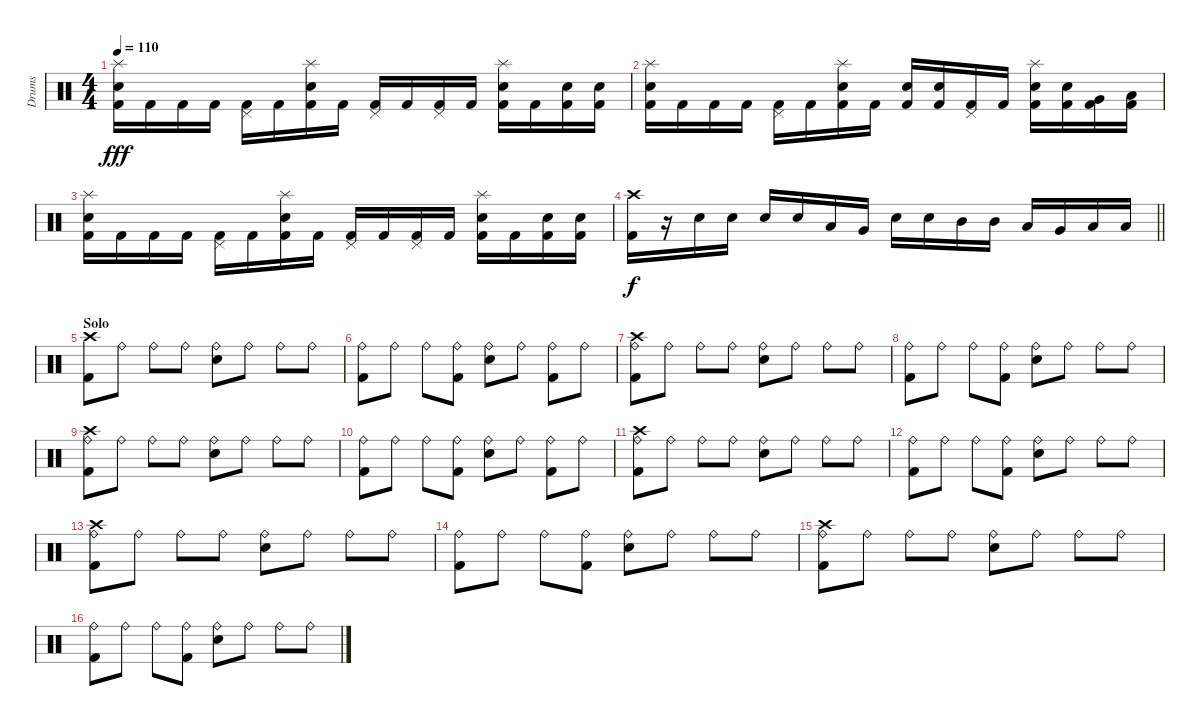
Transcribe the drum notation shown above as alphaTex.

\track ("Drums" "Drums") {instrument percussion}
\staff {score}
\articulation defaults
\ts (4 4)
\tempo 110
\clef neutral
\ks c
("Splash (hit)" "Electric Snare (hit)" "Kick (hit) 2").16{dy fff} "Kick (hit) 2".16 "Kick (hit) 2".16 "Kick (hit) 2".16 ("Pedal Hi-Hat (hit)" "Kick (hit) 2").16 "Kick (hit) 2".16 ("Splash (hit)" "Electric Snare (hit)" "Kick (hit) 2").16 "Kick (hit) 2".16 ("Pedal Hi-Hat (hit)" "Kick (hit) 2").16 "Kick (hit) 2".16 ("Pedal Hi-Hat (hit)" "Kick (hit) 2").16 "Kick (hit) 2".16 ("Splash (hit)" "Electric Snare (hit)" "Kick (hit) 2").16 "Kick (hit) 2".16 ("Electric Snare (hit)" "Kick (hit) 2").16 ("Electric Snare (hit)" "Kick (hit) 2").16 |
("Splash (hit)" "Electric Snare (hit)" "Kick (hit) 2").16 "Kick (hit) 2".16 "Kick (hit) 2".16 "Kick (hit) 2".16 ("Pedal Hi-Hat (hit)" "Kick (hit) 2").16 "Kick (hit) 2".16 ("Splash (hit)" "Electric Snare (hit)" "Kick (hit) 2").16 "Kick (hit) 2".16 ("Electric Snare (hit)" "Kick (hit) 2").16 ("Electric Snare (hit)" "Kick (hit) 2").16 ("Pedal Hi-Hat (hit)" "Kick (hit) 2").16 "Kick (hit) 2".16 ("Splash (hit)" "Electric Snare (hit)" "Kick (hit) 2").16 ("Electric Snare (hit)" "Kick (hit) 2").16 ("Very Low Tom (hit)" "Kick (hit) 2").16 ("Low Floor Tom (hit)" "Kick (hit) 2").16 |
("Splash (hit)" "Electric Snare (hit)" "Kick (hit) 2").16 "Kick (hit) 2".16 "Kick (hit) 2".16 "Kick (hit) 2".16 ("Pedal Hi-Hat (hit)" "Kick (hit) 2").16 "Kick (hit) 2".16 ("Splash (hit)" "Electric Snare (hit)" "Kick (hit) 2").16 "Kick (hit) 2".16 ("Pedal Hi-Hat (hit)" "Kick (hit) 2").16 "Kick (hit) 2".16 ("Pedal Hi-Hat (hit)" "Kick (hit) 2").16 "Kick (hit) 2".16 ("Splash (hit)" "Electric Snare (hit)" "Kick (hit) 2").16 "Kick (hit) 2".16 ("Electric Snare (hit)" "Kick (hit) 2").16 ("Electric Snare (hit)" "Kick (hit) 2").16 |
\barLineRight lightlight
("Crash high (hit)" "Kick (hit) 2").16{dy f} r.16 "Electric Snare (hit)".16 "Electric Snare (hit)".16 "Electric Snare (hit)".16 "Electric Snare (hit)".16 "Low Tom (hit)".16 "Very Low Tom (hit)".16 "Electric Snare (hit)".16 "Electric Snare (hit)".16 "Mid Tom (hit)".16 "Mid Tom (hit)".16 "Low Tom (hit)".16 "Very Low Tom (hit)".16 "Low Floor Tom (hit)".16 "Low Floor Tom (hit)".16 |
\section ("" "Solo")
("Crash high (hit)" "Kick (hit) 2").8 "Ride (bell)".8 "Ride (bell)".8 "Ride (bell)".8 ("Ride (bell)" "Electric Snare (hit)").8 "Ride (bell)".8 "Ride (bell)".8 "Ride (bell)".8 |
("Ride (bell)" "Kick (hit) 2").8 "Ride (bell)".8 "Ride (bell)".8 ("Ride (bell)" "Kick (hit) 2").8 ("Ride (bell)" "Electric Snare (hit)").8 "Ride (bell)".8 ("Ride (bell)" "Kick (hit) 2").8 "Ride (bell)".8 |
("Crash high (hit)" "Ride (bell)" "Kick (hit) 2").8 "Ride (bell)".8 "Ride (bell)".8 "Ride (bell)".8 ("Ride (bell)" "Electric Snare (hit)").8 "Ride (bell)".8 "Ride (bell)".8 "Ride (bell)".8 |
("Ride (bell)" "Kick (hit) 2").8 "Ride (bell)".8 "Ride (bell)".8 ("Ride (bell)" "Kick (hit) 2").8 ("Ride (bell)" "Electric Snare (hit)").8 "Ride (bell)".8 "Ride (bell)".8 "Ride (bell)".8 |
("Crash high (hit)" "Ride (bell)" "Kick (hit) 2").8 "Ride (bell)".8 "Ride (bell)".8 "Ride (bell)".8 ("Ride (bell)" "Electric Snare (hit)").8 "Ride (bell)".8 "Ride (bell)".8 "Ride (bell)".8 |
("Ride (bell)" "Kick (hit) 2").8 "Ride (bell)".8 "Ride (bell)".8 ("Ride (bell)" "Kick (hit) 2").8 ("Ride (bell)" "Electric Snare (hit)").8 "Ride (bell)".8 ("Ride (bell)" "Kick (hit) 2").8 "Ride (bell)".8 |
("Crash high (hit)" "Ride (bell)" "Kick (hit) 2").8 "Ride (bell)".8 "Ride (bell)".8 "Ride (bell)".8 ("Ride (bell)" "Electric Snare (hit)").8 "Ride (bell)".8 "Ride (bell)".8 "Ride (bell)".8 |
("Ride (bell)" "Kick (hit) 2").8 "Ride (bell)".8 "Ride (bell)".8 ("Ride (bell)" "Kick (hit) 2").8 ("Ride (bell)" "Electric Snare (hit)").8 "Ride (bell)".8 "Ride (bell)".8 "Ride (bell)".8 |
("Crash high (hit)" "Ride (bell)" "Kick (hit) 2").8 "Ride (bell)".8 "Ride (bell)".8 "Ride (bell)".8 ("Ride (bell)" "Electric Snare (hit)").8 "Ride (bell)".8 "Ride (bell)".8 "Ride (bell)".8 |
("Ride (bell)" "Kick (hit) 2").8 "Ride (bell)".8 "Ride (bell)".8 ("Ride (bell)" "Kick (hit) 2").8 ("Ride (bell)" "Electric Snare (hit)").8 "Ride (bell)".8 "Ride (bell)".8 "Ride (bell)".8 |
("Crash high (hit)" "Ride (bell)" "Kick (hit) 2").8 "Ride (bell)".8 "Ride (bell)".8 "Ride (bell)".8 ("Ride (bell)" "Electric Snare (hit)").8 "Ride (bell)".8 "Ride (bell)".8 "Ride (bell)".8 |
("Ride (bell)" "Kick (hit) 2").8 "Ride (bell)".8 "Ride (bell)".8 ("Ride (bell)" "Kick (hit) 2").8 ("Ride (bell)" "Electric Snare (hit)").8 "Ride (bell)".8 "Ride (bell)".8 "Ride (bell)".8
